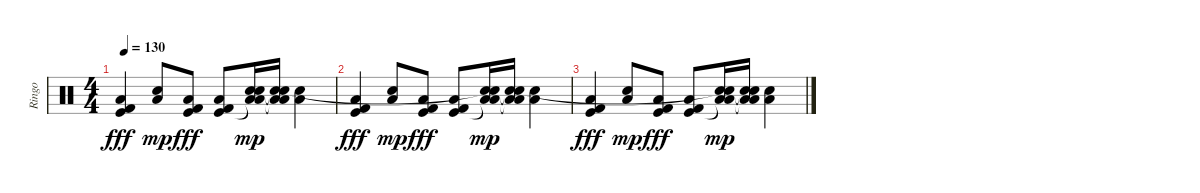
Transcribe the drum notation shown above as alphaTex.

\track ("Ringo" "Ringo") {instrument percussion}
\staff {score}
\articulation defaults
\ts (4 4)
\tempo 130
\clef neutral
\ks c
("Low Floor Tom (hit)" "Kick (hit) 2" "Kick (hit)").4{dy fff} ("Low Floor Tom (hit)" "Snare (hit) 2").8{dy mp} ("Low Floor Tom (hit)" "Kick (hit) 2" "Kick (hit)").8{dy fff} ("Low Floor Tom (hit)" "Kick (hit) 2" "Kick (hit)").8 ("Low Floor Tom (hit)" "Snare (hit) 2" "Low Floor Tom (hit)"{t} "Snare (hit)"{t}).16{dy mp} ("Low Floor Tom (hit)" "Snare (hit) 2" "Low Floor Tom (hit)"{t} "Snare (hit)"{t}).16 ("Low Floor Tom (hit)" "Snare (hit) 2").4 |
("Low Floor Tom (hit)" "Kick (hit) 2" "Kick (hit)").4{dy fff} ("Low Floor Tom (hit)" "Snare (hit) 2").8{dy mp} ("Low Floor Tom (hit)" "Kick (hit) 2" "Kick (hit)").8{dy fff} ("Low Floor Tom (hit)" "Kick (hit) 2" "Kick (hit)").8 ("Low Floor Tom (hit)" "Snare (hit) 2" "Low Floor Tom (hit)"{t} "Snare (hit)"{t}).16{dy mp} ("Low Floor Tom (hit)" "Snare (hit) 2" "Low Floor Tom (hit)"{t} "Snare (hit)"{t}).16 ("Low Floor Tom (hit)" "Snare (hit) 2").4 |
("Low Floor Tom (hit)" "Kick (hit) 2" "Kick (hit)").4{dy fff} ("Low Floor Tom (hit)" "Snare (hit) 2").8{dy mp} ("Low Floor Tom (hit)" "Kick (hit) 2" "Kick (hit)").8{dy fff} ("Low Floor Tom (hit)" "Kick (hit) 2" "Kick (hit)").8 ("Low Floor Tom (hit)" "Snare (hit) 2" "Low Floor Tom (hit)"{t} "Snare (hit)"{t}).16{dy mp} ("Low Floor Tom (hit)" "Snare (hit) 2" "Low Floor Tom (hit)"{t} "Snare (hit)"{t}).16 ("Low Floor Tom (hit)" "Snare (hit) 2").4
